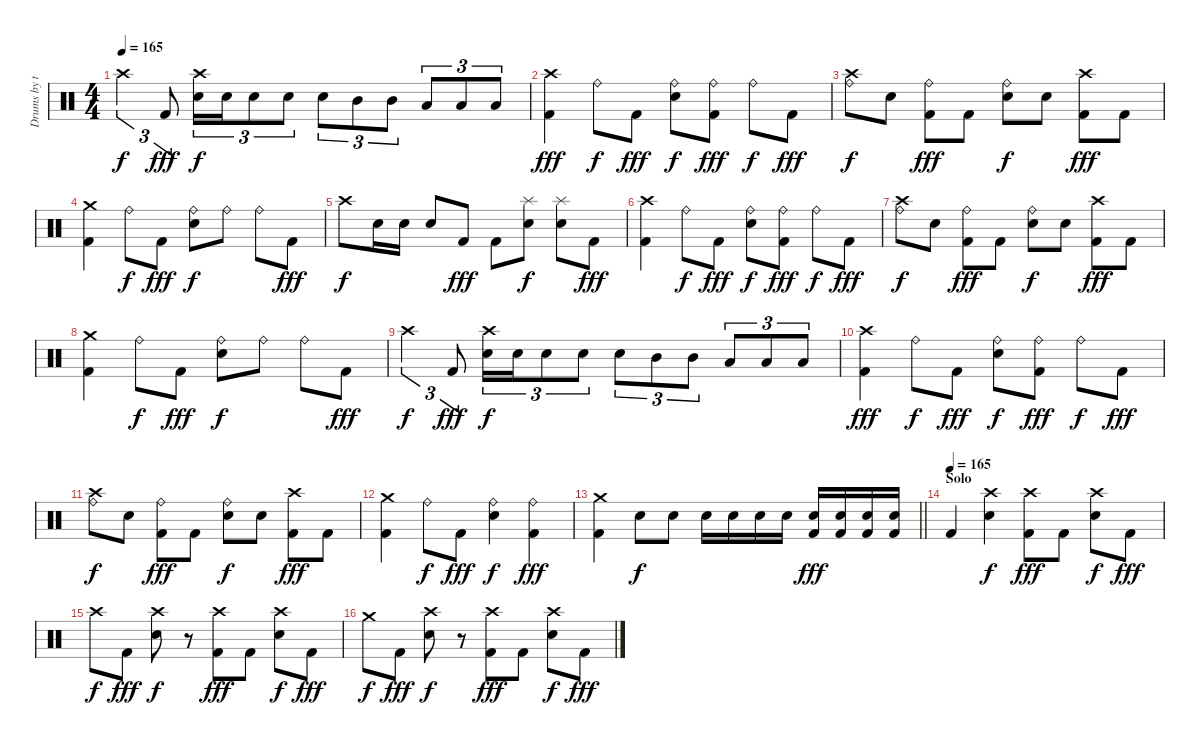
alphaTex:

\track ("Drums by terryn0" "Drums by t") {instrument percussion}
\staff {score}
\articulation defaults
\ts (4 4)
\tempo 165
\clef neutral
\ks c "Crash high (hit)".4{tu (3 2) dy f} "Kick (hit) 2".8{tu (3 2) dy fff}
("Crash high (hit)" "Electric Snare (hit)").16{tu (3 2) dy f} "Electric Snare (hit)".16{tu (3 2)} "Electric Snare (hit)".8{tu (3 2)} "Electric Snare (hit)".8{tu (3 2)} "Electric Snare (hit)".8{tu (3 2)} "Mid Tom (hit)".8{tu (3 2)} "Mid Tom (hit)".8{tu (3 2)} "Low Tom (hit)".8{tu (3 2)} "Low Tom (hit)".8{tu (3 2)} "Low Tom (hit)".8{tu (3 2)} |
("Crash high (hit)" "Kick (hit) 2").4{dy fff} "Ride (bell)".8{dy f} "Kick (hit) 2".8{dy fff} ("Ride (bell)" "Electric Snare (hit)").8{dy f} ("Ride (bell)" "Kick (hit) 2").8{dy fff} "Ride (bell)".8{dy f} "Kick (hit) 2".8{dy fff} |
("Ride (bell)" "Crash high (hit)").8{dy f} "Electric Snare (hit)".8 ("Ride (bell)" "Kick (hit) 2").8{dy fff} "Kick (hit) 2".8 ("Ride (bell)" "Electric Snare (hit)").8{dy f} "Electric Snare (hit)".8 ("Crash high (hit)" "Kick (hit) 2").8{dy fff} "Kick (hit) 2".8 |
("Crash medium (hit)" "Kick (hit) 2").4 "Ride (bell)".8{dy f} "Kick (hit) 2".8{dy fff} ("Ride (bell)" "Electric Snare (hit)").8{dy f} "Ride (bell)".8 "Ride (bell)".8 "Kick (hit) 2".8{dy fff} |
"Crash high (hit)".8{dy f} "Electric Snare (hit)".16 "Electric Snare (hit)".16 "Electric Snare (hit)".8 "Kick (hit) 2".8{dy fff} "Kick (hit) 2".8 ("Splash (hit)" "Electric Snare (hit)").8{dy f} ("Splash (hit)" "Electric Snare (hit)").8 "Kick (hit) 2".8{dy fff} |
("Crash high (hit)" "Kick (hit) 2").4 "Ride (bell)".8{dy f} "Kick (hit) 2".8{dy fff} ("Ride (bell)" "Electric Snare (hit)").8{dy f} ("Ride (bell)" "Kick (hit) 2").8{dy fff} "Ride (bell)".8{dy f} "Kick (hit) 2".8{dy fff} |
("Ride (bell)" "Crash high (hit)").8{dy f} "Electric Snare (hit)".8 ("Ride (bell)" "Kick (hit) 2").8{dy fff} "Kick (hit) 2".8 ("Ride (bell)" "Electric Snare (hit)").8{dy f} "Electric Snare (hit)".8 ("Crash high (hit)" "Kick (hit) 2").8{dy fff} "Kick (hit) 2".8 |
("Crash medium (hit)" "Kick (hit) 2").4 "Ride (bell)".8{dy f} "Kick (hit) 2".8{dy fff} ("Ride (bell)" "Electric Snare (hit)").8{dy f} "Ride (bell)".8 "Ride (bell)".8 "Kick (hit) 2".8{dy fff} |
"Crash high (hit)".4{tu (3 2) dy f} "Kick (hit) 2".8{tu (3 2) dy fff} ("Crash high (hit)" "Electric Snare (hit)").16{tu (3 2) dy f} "Electric Snare (hit)".16{tu (3 2)} "Electric Snare (hit)".8{tu (3 2)} "Electric Snare (hit)".8{tu (3 2)} "Electric Snare (hit)".8{tu (3 2)} "Mid Tom (hit)".8{tu (3 2)} "Mid Tom (hit)".8{tu (3 2)} "Low Tom (hit)".8{tu (3 2)} "Low Tom (hit)".8{tu (3 2)} "Low Tom (hit)".8{tu (3 2)} |
("Crash high (hit)" "Kick (hit) 2").4{dy fff} "Ride (bell)".8{dy f} "Kick (hit) 2".8{dy fff} ("Ride (bell)" "Electric Snare (hit)").8{dy f} ("Ride (bell)" "Kick (hit) 2").8{dy fff} "Ride (bell)".8{dy f} "Kick (hit) 2".8{dy fff} |
("Ride (bell)" "Crash high (hit)").8{dy f} "Electric Snare (hit)".8 ("Ride (bell)" "Kick (hit) 2").8{dy fff} "Kick (hit) 2".8 ("Ride (bell)" "Electric Snare (hit)").8{dy f} "Electric Snare (hit)".8 ("Crash high (hit)" "Kick (hit) 2").8{dy fff} "Kick (hit) 2".8 |
("Crash medium (hit)" "Kick (hit) 2").4 "Ride (bell)".8{dy f} "Kick (hit) 2".8{dy fff} ("Ride (bell)" "Electric Snare (hit)").4{dy f} ("Ride (bell)" "Kick (hit) 2").4{dy fff} |
\barLineRight lightlight
("Crash medium (hit)" "Kick (hit) 2").4 "Electric Snare (hit)".8{dy f} "Electric Snare (hit)".8 "Electric Snare (hit)".16 "Electric Snare (hit)".16 "Electric Snare (hit)".16 "Electric Snare (hit)".16 ("Electric Snare (hit)" "Kick (hit) 2").16{dy fff} ("Electric Snare (hit)" "Kick (hit) 2").16 ("Electric Snare (hit)" "Kick (hit) 2").16 ("Electric Snare (hit)" "Kick (hit) 2").16 |
\section ("" "Solo")
\tempo (165)
"Kick (hit) 2".4 ("Crash high (hit)" "Electric Snare (hit)").4{dy f} ("Crash high (hit)" "Kick (hit) 2").8{dy fff} "Kick (hit) 2".8 ("Crash high (hit)" "Electric Snare (hit)").8{dy f} "Kick (hit) 2".8{dy fff} |
"Crash high (hit)".8{dy f} "Kick (hit) 2".8{dy fff} ("Crash high (hit)" "Electric Snare (hit)").8{dy f} r.8 ("Crash high (hit)" "Kick (hit) 2").8{dy fff} "Kick (hit) 2".8 ("Crash high (hit)" "Electric Snare (hit)").8{dy f} "Kick (hit) 2".8{dy fff} |
"Crash medium (hit)".8{dy f} "Kick (hit) 2".8{dy fff} ("Crash high (hit)" "Electric Snare (hit)").8{dy f} r.8 ("Crash high (hit)" "Kick (hit) 2").8{dy fff} "Kick (hit) 2".8 ("Crash high (hit)" "Electric Snare (hit)").8{dy f} "Kick (hit) 2".8{dy fff}
